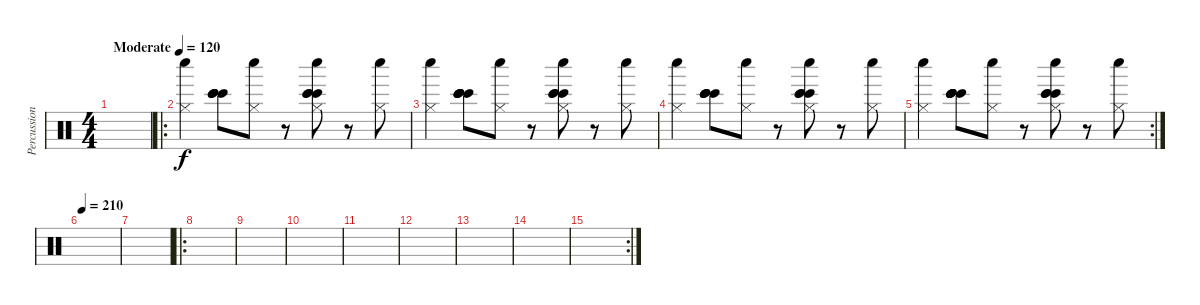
\track ("Percussion" "Percussion") {instrument percussion}
\staff {score}
\articulation defaults
\ts (4 4)
\tempo (120 "Moderate")
\clef neutral
\ks c
|
\ro
("Whistle low (hit)" "Hi-Hat (closed)").4 ("Bongo High (hit)" "Bongo High (hit)" "Bongo High (hit)" "Bongo High (hit)").8 ("Whistle low (hit)" "Hi-Hat (closed)").8 r.8 ("Bongo High (hit)" "Bongo High (hit)" "Bongo High (hit)" "Whistle low (hit)" "Hi-Hat (closed)").8 r.8 ("Whistle low (hit)" "Hi-Hat (closed)").8 |
("Whistle low (hit)" "Hi-Hat (closed)").4 ("Bongo High (hit)" "Bongo High (hit)" "Bongo High (hit)" "Bongo High (hit)" "Bongo High (hit)").8 ("Whistle low (hit)" "Hi-Hat (closed)").8 r.8 ("Bongo High (hit)" "Bongo High (hit)" "Bongo High (hit)" "Whistle low (hit)" "Hi-Hat (closed)").8 r.8 ("Whistle low (hit)" "Hi-Hat (closed)").8 |
("Whistle low (hit)" "Hi-Hat (closed)").4 ("Bongo High (hit)" "Bongo High (hit)" "Bongo High (hit)" "Bongo High (hit)").8 ("Whistle low (hit)" "Hi-Hat (closed)").8 r.8 ("Bongo High (hit)" "Bongo High (hit)" "Bongo High (hit)" "Whistle low (hit)" "Hi-Hat (closed)").8 r.8 ("Whistle low (hit)" "Hi-Hat (closed)").8 |
\rc 2
("Whistle low (hit)" "Hi-Hat (closed)").4 ("Bongo High (hit)" "Bongo High (hit)" "Bongo High (hit)" "Bongo High (hit)" "Bongo High (hit)").8 ("Whistle low (hit)" "Hi-Hat (closed)").8 r.8 ("Bongo High (hit)" "Bongo High (hit)" "Bongo High (hit)" "Whistle low (hit)" "Hi-Hat (closed)").8 r.8 ("Whistle low (hit)" "Hi-Hat (closed)").8 |
\tempo 210
|
|
\ro
|
|
|
|
|
|
|
\rc 2
